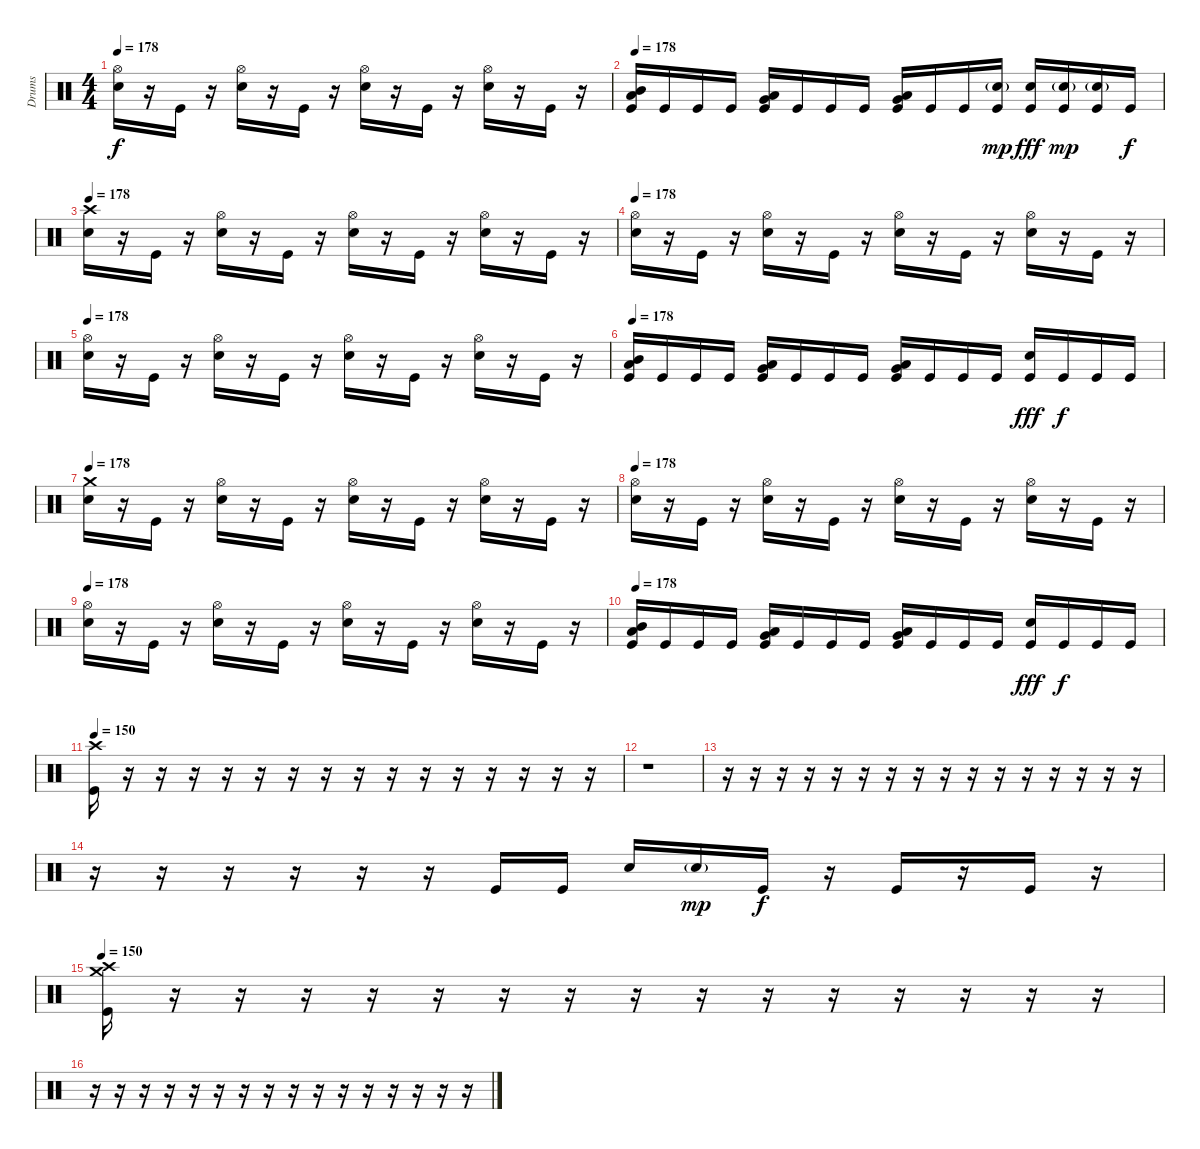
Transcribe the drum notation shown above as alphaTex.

\track ("Drums" "Drums") {instrument percussion}
\staff {score}
\articulation defaults
\ts (4 4)
\tempo 178
\clef neutral
\ks c
("Electric Snare (hit)" "Hi-Hat (open)").16{dy f} r.16 "Kick (hit)".16 r.16 ("Electric Snare (hit)" "Hi-Hat (open)").16 r.16 "Kick (hit)".16 r.16 ("Electric Snare (hit)" "Hi-Hat (open)").16 r.16 "Kick (hit)".16 r.16 ("Electric Snare (hit)" "Hi-Hat (open)").16 r.16 "Kick (hit)".16 r.16 |
\tempo 178
("Kick (hit)" "Low Tom (hit)" "Mid Tom (hit)").16 "Kick (hit)".16 "Kick (hit)".16 "Kick (hit)".16 ("Kick (hit)" "Low Tom (hit)" "Very Low Tom (hit)").16 "Kick (hit)".16 "Kick (hit)".16 "Kick (hit)".16 ("Kick (hit)" "Very Low Tom (hit)" "Low Floor Tom (hit)").16 "Kick (hit)".16 "Kick (hit)".16 ("Kick (hit)" "Electric Snare (hit)"{g}).16{dy mp} ("Kick (hit)" "Electric Snare (hit)").16{dy fff} ("Kick (hit)" "Electric Snare (hit)"{g}).16{dy mp} ("Kick (hit)" "Electric Snare (hit)"{g}).16 "Kick (hit)".16{dy f} |
\tempo 178
("Electric Snare (hit)" "Crash high (hit)").16 r.16 "Kick (hit)".16 r.16 ("Electric Snare (hit)" "Hi-Hat (open)").16 r.16 "Kick (hit)".16 r.16 ("Electric Snare (hit)" "Hi-Hat (open)").16 r.16 "Kick (hit)".16 r.16 ("Electric Snare (hit)" "Hi-Hat (open)").16 r.16 "Kick (hit)".16 r.16 |
\tempo 178
("Electric Snare (hit)" "Hi-Hat (open)").16 r.16 "Kick (hit)".16 r.16 ("Electric Snare (hit)" "Hi-Hat (open)").16 r.16 "Kick (hit)".16 r.16 ("Electric Snare (hit)" "Hi-Hat (open)").16 r.16 "Kick (hit)".16 r.16 ("Electric Snare (hit)" "Hi-Hat (open)").16 r.16 "Kick (hit)".16 r.16 |
\tempo 178
("Electric Snare (hit)" "Hi-Hat (open)").16 r.16 "Kick (hit)".16 r.16 ("Electric Snare (hit)" "Hi-Hat (open)").16 r.16 "Kick (hit)".16 r.16 ("Electric Snare (hit)" "Hi-Hat (open)").16 r.16 "Kick (hit)".16 r.16 ("Electric Snare (hit)" "Hi-Hat (open)").16 r.16 "Kick (hit)".16 r.16 |
\tempo 178
("Kick (hit)" "Low Tom (hit)" "Mid Tom (hit)").16 "Kick (hit)".16 "Kick (hit)".16 "Kick (hit)".16 ("Kick (hit)" "Low Tom (hit)" "Very Low Tom (hit)").16 "Kick (hit)".16 "Kick (hit)".16 "Kick (hit)".16 ("Kick (hit)" "Very Low Tom (hit)" "Low Floor Tom (hit)").16 "Kick (hit)".16 "Kick (hit)".16 "Kick (hit)".16 ("Kick (hit)" "Electric Snare (hit)").16{dy fff} "Kick (hit)".16{dy f} "Kick (hit)".16 "Kick (hit)".16 |
\tempo 178
("Electric Snare (hit)" "Crash medium (hit)").16 r.16 "Kick (hit)".16 r.16 ("Electric Snare (hit)" "Hi-Hat (open)").16 r.16 "Kick (hit)".16 r.16 ("Electric Snare (hit)" "Hi-Hat (open)").16 r.16 "Kick (hit)".16 r.16 ("Electric Snare (hit)" "Hi-Hat (open)").16 r.16 "Kick (hit)".16 r.16 |
\tempo 178
("Electric Snare (hit)" "Hi-Hat (open)").16 r.16 "Kick (hit)".16 r.16 ("Electric Snare (hit)" "Hi-Hat (open)").16 r.16 "Kick (hit)".16 r.16 ("Electric Snare (hit)" "Hi-Hat (open)").16 r.16 "Kick (hit)".16 r.16 ("Electric Snare (hit)" "Hi-Hat (open)").16 r.16 "Kick (hit)".16 r.16 |
\tempo 178
("Electric Snare (hit)" "Hi-Hat (open)").16 r.16 "Kick (hit)".16 r.16 ("Electric Snare (hit)" "Hi-Hat (open)").16 r.16 "Kick (hit)".16 r.16 ("Electric Snare (hit)" "Hi-Hat (open)").16 r.16 "Kick (hit)".16 r.16 ("Electric Snare (hit)" "Hi-Hat (open)").16 r.16 "Kick (hit)".16 r.16 |
\tempo 178
("Kick (hit)" "Low Tom (hit)" "Mid Tom (hit)").16 "Kick (hit)".16 "Kick (hit)".16 "Kick (hit)".16 ("Kick (hit)" "Low Tom (hit)" "Very Low Tom (hit)").16 "Kick (hit)".16 "Kick (hit)".16 "Kick (hit)".16 ("Kick (hit)" "Very Low Tom (hit)" "Low Floor Tom (hit)").16 "Kick (hit)".16 "Kick (hit)".16 "Kick (hit)".16 ("Kick (hit)" "Electric Snare (hit)").16{dy fff} "Kick (hit)".16{dy f} "Kick (hit)".16 "Kick (hit)".16 |
\tempo 150
("Kick (hit)" "Crash high (hit)").16 r.16 r.16 r.16 r.16 r.16 r.16 r.16 r.16 r.16 r.16 r.16 r.16 r.16 r.16 r.16 |
r.1 |
r.16 r.16 r.16 r.16 r.16 r.16 r.16 r.16 r.16 r.16 r.16 r.16 r.16 r.16 r.16 r.16 |
r.16 r.16 r.16 r.16 r.16 r.16 "Kick (hit)".16 "Kick (hit)".16 "Electric Snare (hit)".16 "Electric Snare (hit)"{g}.16{dy mp} "Kick (hit)".16{dy f} r.16 "Kick (hit)".16 r.16 "Kick (hit)".16 r.16 |
\tempo 150
("Kick (hit)" "Crash high (hit)" "Crash medium (hit)").16 r.16 r.16 r.16 r.16 r.16 r.16 r.16 r.16 r.16 r.16 r.16 r.16 r.16 r.16 r.16 |
r.16 r.16 r.16 r.16 r.16 r.16 r.16 r.16 r.16 r.16 r.16 r.16 r.16 r.16 r.16 r.16
